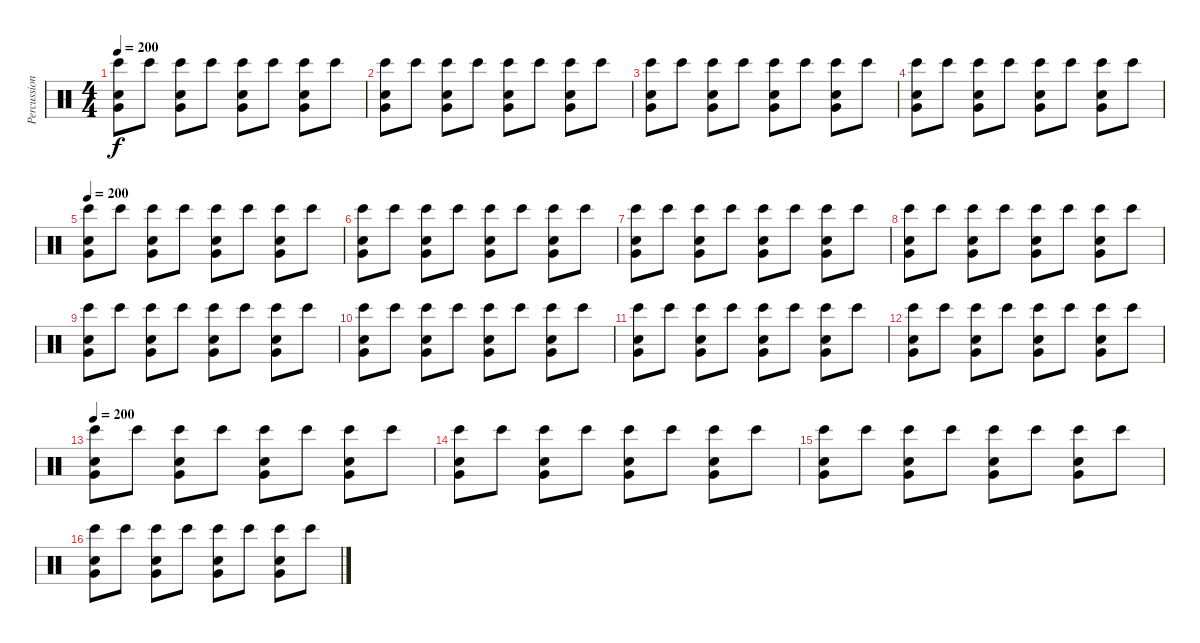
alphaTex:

\track ("Percussion" "Percussion") {instrument percussion}
\staff {score}
\articulation defaults
\ts (4 4)
\tempo 200
\clef neutral
\ks c
("Very Low Tom (hit)" "Bongo High (hit)" "Snare (hit) 2").8{dy f} "Bongo High (hit)".8 ("Very Low Tom (hit)" "Bongo High (hit)" "Snare (hit) 2").8 "Bongo High (hit)".8 ("Very Low Tom (hit)" "Bongo High (hit)" "Snare (hit) 2").8 "Bongo High (hit)".8 ("Very Low Tom (hit)" "Bongo High (hit)" "Snare (hit) 2").8 "Bongo High (hit)".8 |
("Very Low Tom (hit)" "Bongo High (hit)" "Snare (hit) 2").8 "Bongo High (hit)".8 ("Very Low Tom (hit)" "Bongo High (hit)" "Snare (hit) 2").8 "Bongo High (hit)".8 ("Very Low Tom (hit)" "Bongo High (hit)" "Snare (hit) 2").8 "Bongo High (hit)".8 ("Very Low Tom (hit)" "Bongo High (hit)" "Snare (hit) 2").8 "Bongo High (hit)".8 |
("Very Low Tom (hit)" "Bongo High (hit)" "Snare (hit) 2").8 "Bongo High (hit)".8 ("Very Low Tom (hit)" "Bongo High (hit)" "Snare (hit) 2").8 "Bongo High (hit)".8 ("Very Low Tom (hit)" "Bongo High (hit)" "Snare (hit) 2").8 "Bongo High (hit)".8 ("Very Low Tom (hit)" "Bongo High (hit)" "Snare (hit) 2").8 "Bongo High (hit)".8 |
("Very Low Tom (hit)" "Bongo High (hit)" "Snare (hit) 2").8 "Bongo High (hit)".8 ("Very Low Tom (hit)" "Bongo High (hit)" "Snare (hit) 2").8 "Bongo High (hit)".8 ("Very Low Tom (hit)" "Bongo High (hit)" "Snare (hit) 2").8 "Bongo High (hit)".8 ("Very Low Tom (hit)" "Bongo High (hit)" "Snare (hit) 2").8 "Bongo High (hit)".8 |
\tempo 200
("Very Low Tom (hit)" "Bongo High (hit)" "Snare (hit) 2").8 "Bongo High (hit)".8 ("Very Low Tom (hit)" "Bongo High (hit)" "Snare (hit) 2").8 "Bongo High (hit)".8 ("Very Low Tom (hit)" "Bongo High (hit)" "Snare (hit) 2").8 "Bongo High (hit)".8 ("Very Low Tom (hit)" "Bongo High (hit)" "Snare (hit) 2").8 "Bongo High (hit)".8 |
("Very Low Tom (hit)" "Bongo High (hit)" "Snare (hit) 2").8 "Bongo High (hit)".8 ("Very Low Tom (hit)" "Bongo High (hit)" "Snare (hit) 2").8 "Bongo High (hit)".8 ("Very Low Tom (hit)" "Bongo High (hit)" "Snare (hit) 2").8 "Bongo High (hit)".8 ("Very Low Tom (hit)" "Bongo High (hit)" "Snare (hit) 2").8 "Bongo High (hit)".8 |
("Very Low Tom (hit)" "Bongo High (hit)" "Snare (hit) 2").8 "Bongo High (hit)".8 ("Very Low Tom (hit)" "Bongo High (hit)" "Snare (hit) 2").8 "Bongo High (hit)".8 ("Very Low Tom (hit)" "Bongo High (hit)" "Snare (hit) 2").8 "Bongo High (hit)".8 ("Very Low Tom (hit)" "Bongo High (hit)" "Snare (hit) 2").8 "Bongo High (hit)".8 |
("Very Low Tom (hit)" "Bongo High (hit)" "Snare (hit) 2").8 "Bongo High (hit)".8 ("Very Low Tom (hit)" "Bongo High (hit)" "Snare (hit) 2").8 "Bongo High (hit)".8 ("Very Low Tom (hit)" "Bongo High (hit)" "Snare (hit) 2").8 "Bongo High (hit)".8 ("Very Low Tom (hit)" "Bongo High (hit)" "Snare (hit) 2").8 "Bongo High (hit)".8 |
("Very Low Tom (hit)" "Bongo High (hit)" "Snare (hit) 2").8 "Bongo High (hit)".8 ("Very Low Tom (hit)" "Bongo High (hit)" "Snare (hit) 2").8 "Bongo High (hit)".8 ("Very Low Tom (hit)" "Bongo High (hit)" "Snare (hit) 2").8 "Bongo High (hit)".8 ("Very Low Tom (hit)" "Bongo High (hit)" "Snare (hit) 2").8 "Bongo High (hit)".8 |
("Very Low Tom (hit)" "Bongo High (hit)" "Snare (hit) 2").8 "Bongo High (hit)".8 ("Very Low Tom (hit)" "Bongo High (hit)" "Snare (hit) 2").8 "Bongo High (hit)".8 ("Very Low Tom (hit)" "Bongo High (hit)" "Snare (hit) 2").8 "Bongo High (hit)".8 ("Very Low Tom (hit)" "Bongo High (hit)" "Snare (hit) 2").8 "Bongo High (hit)".8 |
("Very Low Tom (hit)" "Bongo High (hit)" "Snare (hit) 2").8 "Bongo High (hit)".8 ("Very Low Tom (hit)" "Bongo High (hit)" "Snare (hit) 2").8 "Bongo High (hit)".8 ("Very Low Tom (hit)" "Bongo High (hit)" "Snare (hit) 2").8 "Bongo High (hit)".8 ("Very Low Tom (hit)" "Bongo High (hit)" "Snare (hit) 2").8 "Bongo High (hit)".8 |
("Very Low Tom (hit)" "Bongo High (hit)" "Snare (hit) 2").8 "Bongo High (hit)".8 ("Very Low Tom (hit)" "Bongo High (hit)" "Snare (hit) 2").8 "Bongo High (hit)".8 ("Very Low Tom (hit)" "Bongo High (hit)" "Snare (hit) 2").8 "Bongo High (hit)".8 ("Very Low Tom (hit)" "Bongo High (hit)" "Snare (hit) 2").8 "Bongo High (hit)".8 |
\tempo 200
("Very Low Tom (hit)" "Bongo High (hit)" "Snare (hit) 2").8 "Bongo High (hit)".8 ("Very Low Tom (hit)" "Bongo High (hit)" "Snare (hit) 2").8 "Bongo High (hit)".8 ("Very Low Tom (hit)" "Bongo High (hit)" "Snare (hit) 2").8 "Bongo High (hit)".8 ("Very Low Tom (hit)" "Bongo High (hit)" "Snare (hit) 2").8 "Bongo High (hit)".8 |
("Very Low Tom (hit)" "Bongo High (hit)" "Snare (hit) 2").8 "Bongo High (hit)".8 ("Very Low Tom (hit)" "Bongo High (hit)" "Snare (hit) 2").8 "Bongo High (hit)".8 ("Very Low Tom (hit)" "Bongo High (hit)" "Snare (hit) 2").8 "Bongo High (hit)".8 ("Very Low Tom (hit)" "Bongo High (hit)" "Snare (hit) 2").8 "Bongo High (hit)".8 |
("Very Low Tom (hit)" "Bongo High (hit)" "Snare (hit) 2").8 "Bongo High (hit)".8 ("Very Low Tom (hit)" "Bongo High (hit)" "Snare (hit) 2").8 "Bongo High (hit)".8 ("Very Low Tom (hit)" "Bongo High (hit)" "Snare (hit) 2").8 "Bongo High (hit)".8 ("Very Low Tom (hit)" "Bongo High (hit)" "Snare (hit) 2").8 "Bongo High (hit)".8 |
("Very Low Tom (hit)" "Bongo High (hit)" "Snare (hit) 2").8 "Bongo High (hit)".8 ("Very Low Tom (hit)" "Bongo High (hit)" "Snare (hit) 2").8 "Bongo High (hit)".8 ("Very Low Tom (hit)" "Bongo High (hit)" "Snare (hit) 2").8 "Bongo High (hit)".8 ("Very Low Tom (hit)" "Bongo High (hit)" "Snare (hit) 2").8 "Bongo High (hit)".8
